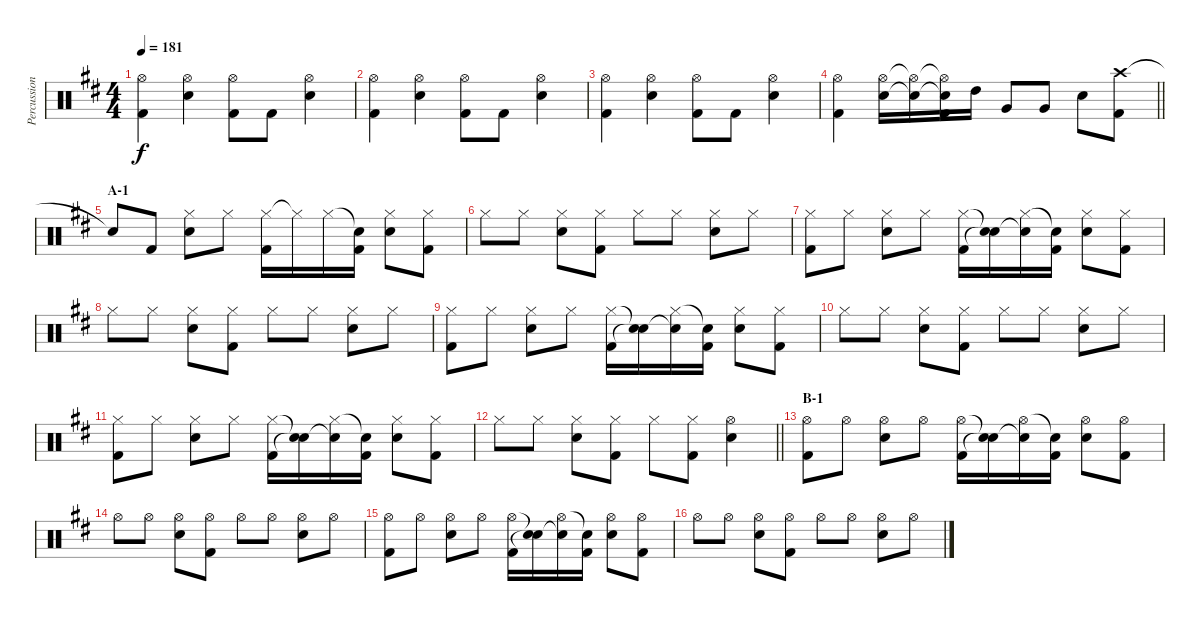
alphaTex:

\track ("Percussion" "Percussion") {instrument percussion}
\staff {score}
\articulation defaults
\ts (4 4)
\tempo 181
\clef neutral
\ks d
("Hi-Hat (open)" "Kick (hit) 2").4{dy f} ("Hi-Hat (open)" "Snare (hit) 2").4 ("Hi-Hat (open)" "Kick (hit) 2").8 "Kick (hit) 2".8 ("Hi-Hat (open)" "Snare (hit) 2").4 |
("Hi-Hat (open)" "Kick (hit) 2").4 ("Hi-Hat (open)" "Snare (hit) 2").4 ("Hi-Hat (open)" "Kick (hit) 2").8 "Kick (hit) 2".8 ("Hi-Hat (open)" "Snare (hit) 2").4 |
("Hi-Hat (open)" "Kick (hit) 2").4 ("Hi-Hat (open)" "Snare (hit) 2").4 ("Hi-Hat (open)" "Kick (hit) 2").8 "Kick (hit) 2".8 ("Hi-Hat (open)" "Snare (hit) 2").4 |
\barLineRight lightlight
("Hi-Hat (open)" "Kick (hit) 2").4 ("Hi-Hat (open)" "Snare (hit) 2").16 ("Hi-Hat (open)"{t} "Snare (hit)"{t}).16 ("Hi-Hat (open)"{t} "Snare (hit)"{t} "Kick (hit) 2").16 "High Tom (hit)".16 "Very Low Tom (hit)".8 "Very Low Tom (hit)".8 "Snare (hit) 2".8 ("Crash high (hit)" "Kick (hit) 2").8 |
\section ("" "A-1")
"Snare (hit)"{t}.8 "Kick (hit) 2".8 ("Hi-Hat (closed)" "Snare (hit) 2").8 "Hi-Hat (closed)".8 ("Hi-Hat (closed)" "Kick (hit) 2").16 "Hi-Hat (closed)"{t}.16 "Hi-Hat (closed)".16 ("Snare (hit)"{t} "Kick (hit) 2").16 ("Hi-Hat (closed)" "Snare (hit) 2").8 ("Hi-Hat (closed)" "Kick (hit) 2").8 |
"Hi-Hat (closed)".8 "Hi-Hat (closed)".8 ("Hi-Hat (closed)" "Snare (hit) 2").8 ("Hi-Hat (closed)" "Kick (hit) 2").8 "Hi-Hat (closed)".8 "Hi-Hat (closed)".8 ("Hi-Hat (closed)" "Snare (hit) 2").8 "Hi-Hat (closed)".8 |
("Hi-Hat (closed)" "Kick (hit) 2").8 "Hi-Hat (closed)".8 ("Hi-Hat (closed)" "Snare (hit) 2").8 "Hi-Hat (closed)".8 ("Hi-Hat (closed)" "Kick (hit) 2").16 ("Snare (hit)"{t} "Snare (hit)"{t}).16 ("Hi-Hat (closed)" "Snare (hit)"{t}).16 ("Snare (hit)"{t} "Kick (hit) 2").16 ("Hi-Hat (closed)" "Snare (hit) 2").8 ("Hi-Hat (closed)" "Kick (hit) 2").8 |
"Hi-Hat (closed)".8 "Hi-Hat (closed)".8 ("Hi-Hat (closed)" "Snare (hit) 2").8 ("Hi-Hat (closed)" "Kick (hit) 2").8 "Hi-Hat (closed)".8 "Hi-Hat (closed)".8 ("Hi-Hat (closed)" "Snare (hit) 2").8 "Hi-Hat (closed)".8 |
("Hi-Hat (closed)" "Kick (hit) 2").8 "Hi-Hat (closed)".8 ("Hi-Hat (closed)" "Snare (hit) 2").8 "Hi-Hat (closed)".8 ("Hi-Hat (closed)" "Kick (hit) 2").16 ("Snare (hit)"{t} "Snare (hit)"{t}).16 ("Hi-Hat (closed)" "Snare (hit)"{t}).16 ("Snare (hit)"{t} "Kick (hit) 2").16 ("Hi-Hat (closed)" "Snare (hit) 2").8 ("Hi-Hat (closed)" "Kick (hit) 2").8 |
"Hi-Hat (closed)".8 "Hi-Hat (closed)".8 ("Hi-Hat (closed)" "Snare (hit) 2").8 ("Hi-Hat (closed)" "Kick (hit) 2").8 "Hi-Hat (closed)".8 "Hi-Hat (closed)".8 ("Hi-Hat (closed)" "Snare (hit) 2").8 "Hi-Hat (closed)".8 |
("Hi-Hat (closed)" "Kick (hit) 2").8 "Hi-Hat (closed)".8 ("Hi-Hat (closed)" "Snare (hit) 2").8 "Hi-Hat (closed)".8 ("Hi-Hat (closed)" "Kick (hit) 2").16 ("Snare (hit)"{t} "Snare (hit)"{t}).16 ("Hi-Hat (closed)" "Snare (hit)"{t}).16 ("Snare (hit)"{t} "Kick (hit) 2").16 ("Hi-Hat (closed)" "Snare (hit) 2").8 ("Hi-Hat (closed)" "Kick (hit) 2").8 |
\barLineRight lightlight "Hi-Hat (closed)".8 "Hi-Hat (closed)".8
("Hi-Hat (closed)" "Snare (hit) 2").8 ("Hi-Hat (closed)" "Kick (hit) 2").8 "Hi-Hat (closed)".8 ("Hi-Hat (closed)" "Kick (hit) 2").8 ("Hi-Hat (open)" "Snare (hit) 2").4 |
\section ("" "B-1")
("Hi-Hat (open)" "Kick (hit) 2").8 "Hi-Hat (open)".8 ("Hi-Hat (open)" "Snare (hit) 2").8 "Hi-Hat (open)".8 ("Hi-Hat (open)" "Kick (hit) 2").16 ("Snare (hit)"{t} "Snare (hit)"{t}).16 ("Hi-Hat (open)" "Snare (hit)"{t}).16 ("Snare (hit)"{t} "Kick (hit) 2").16 ("Hi-Hat (open)" "Snare (hit) 2").8 ("Hi-Hat (open)" "Kick (hit) 2").8 |
"Hi-Hat (open)".8 "Hi-Hat (open)".8 ("Hi-Hat (open)" "Snare (hit) 2").8 ("Hi-Hat (open)" "Kick (hit) 2").8 "Hi-Hat (open)".8 "Hi-Hat (open)".8 ("Hi-Hat (open)" "Snare (hit) 2").8 "Hi-Hat (open)".8 |
("Hi-Hat (open)" "Kick (hit) 2").8 "Hi-Hat (open)".8 ("Hi-Hat (open)" "Snare (hit) 2").8 "Hi-Hat (open)".8 ("Hi-Hat (open)" "Kick (hit) 2").16 ("Snare (hit)"{t} "Snare (hit)"{t}).16 ("Hi-Hat (open)" "Snare (hit)"{t}).16 ("Snare (hit)"{t} "Kick (hit) 2").16 ("Hi-Hat (open)" "Snare (hit) 2").8 ("Hi-Hat (open)" "Kick (hit) 2").8 |
"Hi-Hat (open)".8 "Hi-Hat (open)".8 ("Hi-Hat (open)" "Snare (hit) 2").8 ("Hi-Hat (open)" "Kick (hit) 2").8 "Hi-Hat (open)".8 "Hi-Hat (open)".8 ("Hi-Hat (open)" "Snare (hit) 2").8 "Hi-Hat (open)".8
